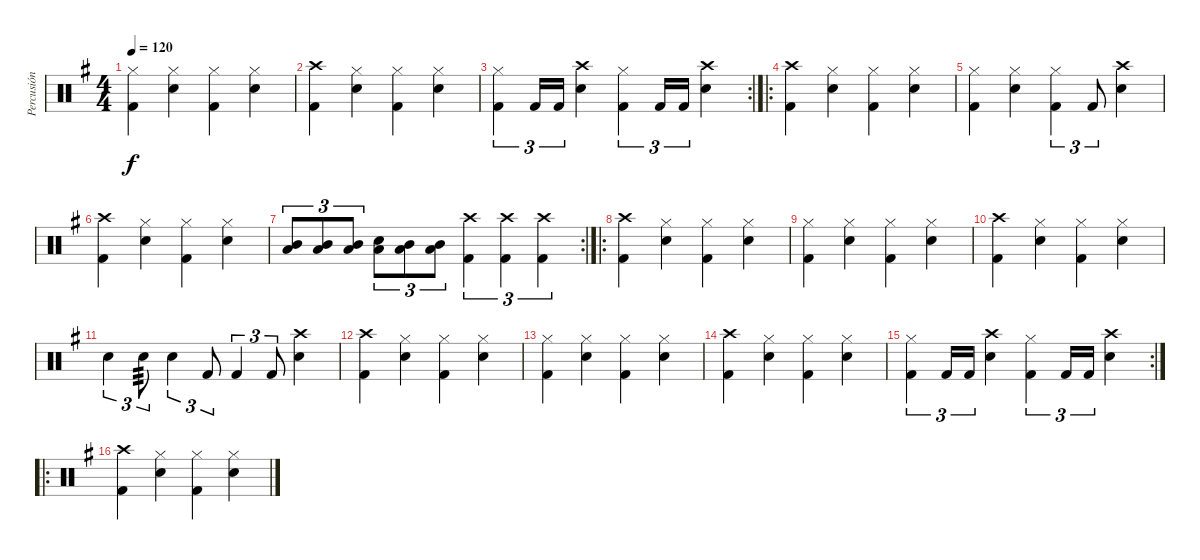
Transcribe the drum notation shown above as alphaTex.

\track ("Percusión" "Percusión") {instrument percussion}
\staff {score}
\articulation defaults
\ts (4 4)
\tempo 120
\clef neutral
\ks g
("Hi-Hat (closed)" "Kick (hit) 2").4{dy f} ("Hi-Hat (closed)" "Snare (hit) 2").4 ("Hi-Hat (closed)" "Kick (hit) 2").4 ("Hi-Hat (closed)" "Snare (hit) 2").4 |
("Crash high (hit)" "Kick (hit) 2").4 ("Hi-Hat (closed)" "Snare (hit) 2").4 ("Hi-Hat (closed)" "Kick (hit) 2").4 ("Hi-Hat (closed)" "Snare (hit) 2").4 |
\rc 2
("Hi-Hat (closed)" "Kick (hit) 2").4{tu (3 2)} "Kick (hit) 2".16{tu (3 2)} "Kick (hit) 2".16{tu (3 2)} ("Crash high (hit)" "Snare (hit) 2").4 ("Hi-Hat (closed)" "Kick (hit) 2").4{tu (3 2)} "Kick (hit) 2".16{tu (3 2)} "Kick (hit) 2".16{tu (3 2)} ("Crash high (hit)" "Snare (hit) 2").4 |
\ro
("Crash high (hit)" "Kick (hit) 2").4 ("Hi-Hat (closed)" "Snare (hit) 2").4 ("Hi-Hat (closed)" "Kick (hit) 2").4 ("Hi-Hat (closed)" "Snare (hit) 2").4 |
("Hi-Hat (closed)" "Kick (hit) 2").4 ("Hi-Hat (closed)" "Snare (hit) 2").4 ("Hi-Hat (closed)" "Kick (hit) 2").4{tu (3 2)} "Kick (hit) 2".8{tu (3 2)} ("Crash high (hit)" "Snare (hit) 2").4 |
("Crash high (hit)" "Kick (hit) 2").4 ("Hi-Hat (closed)" "Snare (hit) 2").4 ("Hi-Hat (closed)" "Kick (hit) 2").4 ("Hi-Hat (closed)" "Snare (hit) 2").4 |
\rc 2
("Low Tom (hit)" "Mid Tom (hit)").8{tu (3 2)} ("Low Tom (hit)" "Mid Tom (hit)").8{tu (3 2)} ("Low Tom (hit)" "Mid Tom (hit)").8{tu (3 2)} ("Low Tom (hit)" "Snare (hit) 2").8{tu (3 2)} ("Low Tom (hit)" "Mid Tom (hit)").8{tu (3 2)} ("Low Tom (hit)" "Mid Tom (hit)").8{tu (3 2)} ("Crash high (hit)" "Kick (hit) 2").4{tu (3 2)} ("Crash high (hit)" "Kick (hit) 2").4{tu (3 2)} ("Crash high (hit)" "Kick (hit) 2").4{tu (3 2)} |
\ro
("Crash high (hit)" "Kick (hit) 2").4 ("Hi-Hat (closed)" "Snare (hit) 2").4 ("Hi-Hat (closed)" "Kick (hit) 2").4 ("Hi-Hat (closed)" "Snare (hit) 2").4 |
("Hi-Hat (closed)" "Kick (hit) 2").4 ("Hi-Hat (closed)" "Snare (hit) 2").4 ("Hi-Hat (closed)" "Kick (hit) 2").4 ("Hi-Hat (closed)" "Snare (hit) 2").4 |
("Crash high (hit)" "Kick (hit) 2").4 ("Hi-Hat (closed)" "Snare (hit) 2").4 ("Hi-Hat (closed)" "Kick (hit) 2").4 ("Hi-Hat (closed)" "Snare (hit) 2").4 |
"Snare (hit) 2".4{tu (3 2)} "Snare (hit) 2".8{tu (3 2) tp 3} "Snare (hit) 2".4{tu (3 2)} "Kick (hit) 2".8{tu (3 2)} "Kick (hit) 2".4{tu (3 2)} "Kick (hit) 2".8{tu (3 2)} ("Crash high (hit)" "Snare (hit) 2").4 |
("Crash high (hit)" "Kick (hit) 2").4 ("Hi-Hat (closed)" "Snare (hit) 2").4 ("Hi-Hat (closed)" "Kick (hit) 2").4 ("Hi-Hat (closed)" "Snare (hit) 2").4 |
("Hi-Hat (closed)" "Kick (hit) 2").4 ("Hi-Hat (closed)" "Snare (hit) 2").4 ("Hi-Hat (closed)" "Kick (hit) 2").4 ("Hi-Hat (closed)" "Snare (hit) 2").4 |
("Crash high (hit)" "Kick (hit) 2").4 ("Hi-Hat (closed)" "Snare (hit) 2").4 ("Hi-Hat (closed)" "Kick (hit) 2").4 ("Hi-Hat (closed)" "Snare (hit) 2").4 |
\rc 2
("Hi-Hat (closed)" "Kick (hit) 2").4{tu (3 2)} "Kick (hit) 2".16{tu (3 2)} "Kick (hit) 2".16{tu (3 2)} ("Crash high (hit)" "Snare (hit) 2").4 ("Hi-Hat (closed)" "Kick (hit) 2").4{tu (3 2)} "Kick (hit) 2".16{tu (3 2)} "Kick (hit) 2".16{tu (3 2)} ("Crash high (hit)" "Snare (hit) 2").4 |
\ro
("Crash high (hit)" "Kick (hit) 2").4 ("Hi-Hat (closed)" "Snare (hit) 2").4 ("Hi-Hat (closed)" "Kick (hit) 2").4 ("Hi-Hat (closed)" "Snare (hit) 2").4
